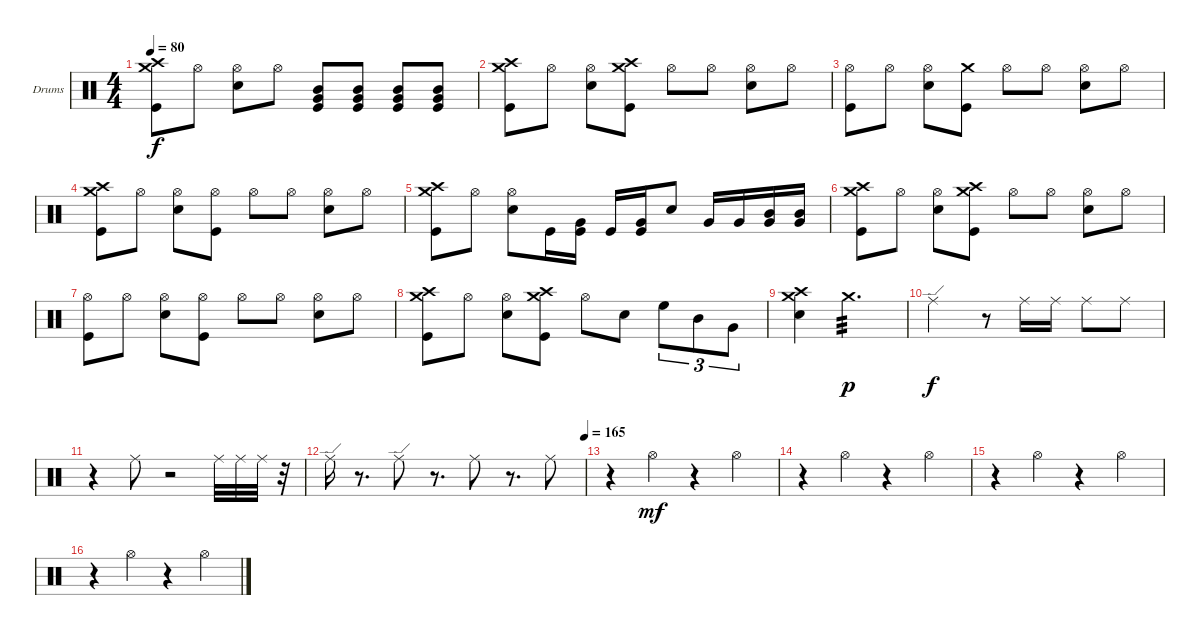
\defaultSystemsLayout 4
\bracketExtendMode groupsimilarinstruments
\firstSystemTrackNameOrientation horizontal
\otherSystemsTrackNameOrientation horizontal
\track ("Drumkit" "Drums") {instrument percussion}
\staff {score}
\articulation defaults
\ts (4 4)
\tempo 80
\clef neutral
\ks c
("Crash medium (hit)" "Crash high (hit)" "Kick (hit)").8{dy f} "Hi-Hat (open)".8 ("Hi-Hat (open)" "Snare (hit) 2").8 "Hi-Hat (open)".8 ("Mid Tom (hit)" "Very Low Tom (hit)" "Kick (hit)").8 ("Mid Tom (hit)" "Very Low Tom (hit)" "Kick (hit)").8 ("Mid Tom (hit)" "Very Low Tom (hit)" "Kick (hit)").8 ("Mid Tom (hit)" "Very Low Tom (hit)" "Kick (hit)").8 |
("Crash medium (hit)" "Crash high (hit)" "Kick (hit)").8 "Hi-Hat (open)".8 ("Hi-Hat (open)" "Snare (hit) 2").8 ("Crash medium (hit)" "Crash high (hit)" "Kick (hit)").8 "Hi-Hat (open)".8 "Hi-Hat (open)".8 ("Hi-Hat (open)" "Snare (hit) 2").8 "Hi-Hat (open)".8 |
("Hi-Hat (open)" "Kick (hit)").8 "Hi-Hat (open)".8 ("Hi-Hat (open)" "Snare (hit) 2").8 ("Crash medium (hit)" "Kick (hit)").8 "Hi-Hat (open)".8 "Hi-Hat (open)".8 ("Hi-Hat (open)" "Snare (hit) 2").8 "Hi-Hat (open)".8 |
("Crash medium (hit)" "Crash high (hit)" "Kick (hit)").8 "Hi-Hat (open)".8 ("Hi-Hat (open)" "Snare (hit) 2").8 ("Hi-Hat (open)" "Kick (hit)").8 "Hi-Hat (open)".8 "Hi-Hat (open)".8 ("Hi-Hat (open)" "Snare (hit) 2").8 "Hi-Hat (open)".8 |
("Crash medium (hit)" "Crash high (hit)" "Kick (hit)").8 "Hi-Hat (open)".8 ("Hi-Hat (open)" "Snare (hit) 2").8 "Kick (hit)".16 ("Very Low Tom (hit)" "Kick (hit)").16 "Kick (hit)".16 ("Very Low Tom (hit)" "Kick (hit)").16 "Snare (hit) 2".8 "Very Low Tom (hit)".16 "Very Low Tom (hit)".16 ("Very Low Tom (hit)" "Mid Tom (hit)").16 ("Very Low Tom (hit)" "Mid Tom (hit)").16 |
("Crash medium (hit)" "Crash high (hit)" "Kick (hit)").8 "Hi-Hat (open)".8 ("Hi-Hat (open)" "Snare (hit) 2").8 ("Crash medium (hit)" "Crash high (hit)" "Kick (hit)").8 "Hi-Hat (open)".8 "Hi-Hat (open)".8 ("Hi-Hat (open)" "Snare (hit) 2").8 "Hi-Hat (open)".8 |
("Hi-Hat (open)" "Kick (hit)").8 "Hi-Hat (open)".8 ("Hi-Hat (open)" "Snare (hit) 2").8 ("Hi-Hat (open)" "Kick (hit)").8 "Hi-Hat (open)".8 "Hi-Hat (open)".8 ("Hi-Hat (open)" "Snare (hit) 2").8 "Hi-Hat (open)".8 |
("Crash medium (hit)" "Crash high (hit)" "Kick (hit)").8 "Hi-Hat (open)".8 ("Hi-Hat (open)" "Snare (hit) 2").8 ("Crash medium (hit)" "Crash high (hit)" "Kick (hit)").8 "Hi-Hat (open)".8 "Snare (hit) 2".8 "High Floor Tom (hit)".8{tu (3 2)} "Mid Tom (hit)".8{tu (3 2)} "Very Low Tom (hit)".8{tu (3 2)} |
("Crash high (hit)" "Crash medium (hit)" "Snare (hit) 2").4 "Crash medium (hit)".2{d tp 3 dy p} |
"Ride (edge)".2{dy f} r.8 "Ride (middle)".16 "Ride (middle)".16 "Ride (middle)".8 "Ride (middle)".8 |
r.4 "Ride (middle)".8 r.2 "Ride (middle)".32 "Ride (middle)".32 "Ride (middle)".32 r.32 |
\tempo (165 1)
"Ride (edge)".16 r.8{d} "Ride (edge)".8 r.8{d} "Ride (middle)".8 r.8{d} "Ride (middle)".8 |
r.4 "Hi-Hat (open)".4{dy mf} r.4 "Hi-Hat (open)".4 |
r.4 "Hi-Hat (open)".4 r.4 "Hi-Hat (open)".4 |
r.4 "Hi-Hat (open)".4 r.4 "Hi-Hat (open)".4 |
r.4 "Hi-Hat (open)".4 r.4 "Hi-Hat (open)".4
